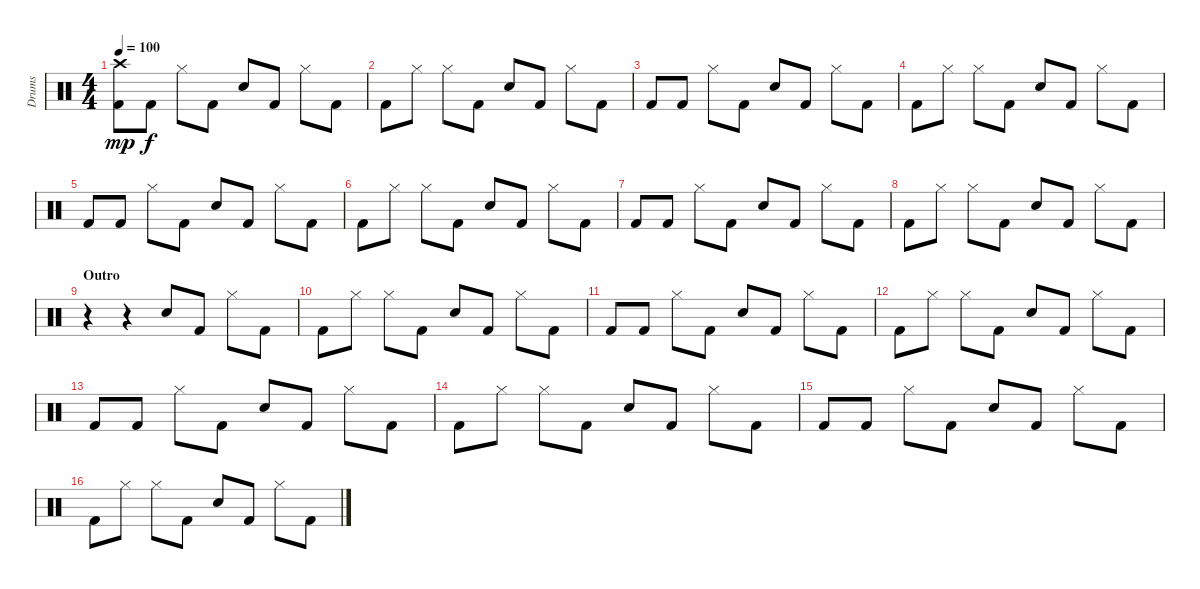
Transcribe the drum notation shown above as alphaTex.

\track ("Drums" "Drums") {instrument percussion}
\staff {score}
\articulation defaults
\ts (4 4)
\tempo 100
\clef neutral
\ks c
("Crash high (hit)" "Kick (hit) 2").8{dy mp} "Kick (hit) 2".8{dy f} "Hi-Hat (closed)".8 "Kick (hit) 2".8 "Snare (hit) 2".8 "Kick (hit) 2".8 "Hi-Hat (closed)".8 "Kick (hit) 2".8 |
"Kick (hit) 2".8 "Hi-Hat (closed)".8 "Hi-Hat (closed)".8 "Kick (hit) 2".8 "Snare (hit) 2".8 "Kick (hit) 2".8 "Hi-Hat (closed)".8 "Kick (hit) 2".8 |
"Kick (hit) 2".8 "Kick (hit) 2".8 "Hi-Hat (closed)".8 "Kick (hit) 2".8 "Snare (hit) 2".8 "Kick (hit) 2".8 "Hi-Hat (closed)".8 "Kick (hit) 2".8 |
"Kick (hit) 2".8 "Hi-Hat (closed)".8 "Hi-Hat (closed)".8 "Kick (hit) 2".8 "Snare (hit) 2".8 "Kick (hit) 2".8 "Hi-Hat (closed)".8 "Kick (hit) 2".8 |
"Kick (hit) 2".8 "Kick (hit) 2".8 "Hi-Hat (closed)".8 "Kick (hit) 2".8 "Snare (hit) 2".8 "Kick (hit) 2".8 "Hi-Hat (closed)".8 "Kick (hit) 2".8 |
"Kick (hit) 2".8 "Hi-Hat (closed)".8 "Hi-Hat (closed)".8 "Kick (hit) 2".8 "Snare (hit) 2".8 "Kick (hit) 2".8 "Hi-Hat (closed)".8 "Kick (hit) 2".8 |
"Kick (hit) 2".8 "Kick (hit) 2".8 "Hi-Hat (closed)".8 "Kick (hit) 2".8 "Snare (hit) 2".8 "Kick (hit) 2".8 "Hi-Hat (closed)".8 "Kick (hit) 2".8 |
"Kick (hit) 2".8 "Hi-Hat (closed)".8 "Hi-Hat (closed)".8 "Kick (hit) 2".8 "Snare (hit) 2".8 "Kick (hit) 2".8 "Hi-Hat (closed)".8 "Kick (hit) 2".8 |
\section ("" "Outro")
r.4 r.4 "Snare (hit) 2".8 "Kick (hit) 2".8 "Hi-Hat (closed)".8 "Kick (hit) 2".8 |
"Kick (hit) 2".8 "Hi-Hat (closed)".8 "Hi-Hat (closed)".8 "Kick (hit) 2".8 "Snare (hit) 2".8 "Kick (hit) 2".8 "Hi-Hat (closed)".8 "Kick (hit) 2".8 |
"Kick (hit) 2".8 "Kick (hit) 2".8 "Hi-Hat (closed)".8 "Kick (hit) 2".8 "Snare (hit) 2".8 "Kick (hit) 2".8 "Hi-Hat (closed)".8 "Kick (hit) 2".8 |
"Kick (hit) 2".8 "Hi-Hat (closed)".8 "Hi-Hat (closed)".8 "Kick (hit) 2".8 "Snare (hit) 2".8 "Kick (hit) 2".8 "Hi-Hat (closed)".8 "Kick (hit) 2".8 |
"Kick (hit) 2".8 "Kick (hit) 2".8 "Hi-Hat (closed)".8 "Kick (hit) 2".8 "Snare (hit) 2".8 "Kick (hit) 2".8 "Hi-Hat (closed)".8 "Kick (hit) 2".8 |
"Kick (hit) 2".8 "Hi-Hat (closed)".8 "Hi-Hat (closed)".8 "Kick (hit) 2".8 "Snare (hit) 2".8 "Kick (hit) 2".8 "Hi-Hat (closed)".8 "Kick (hit) 2".8 |
"Kick (hit) 2".8 "Kick (hit) 2".8 "Hi-Hat (closed)".8 "Kick (hit) 2".8 "Snare (hit) 2".8 "Kick (hit) 2".8 "Hi-Hat (closed)".8 "Kick (hit) 2".8 |
"Kick (hit) 2".8 "Hi-Hat (closed)".8 "Hi-Hat (closed)".8 "Kick (hit) 2".8 "Snare (hit) 2".8 "Kick (hit) 2".8 "Hi-Hat (closed)".8 "Kick (hit) 2".8
